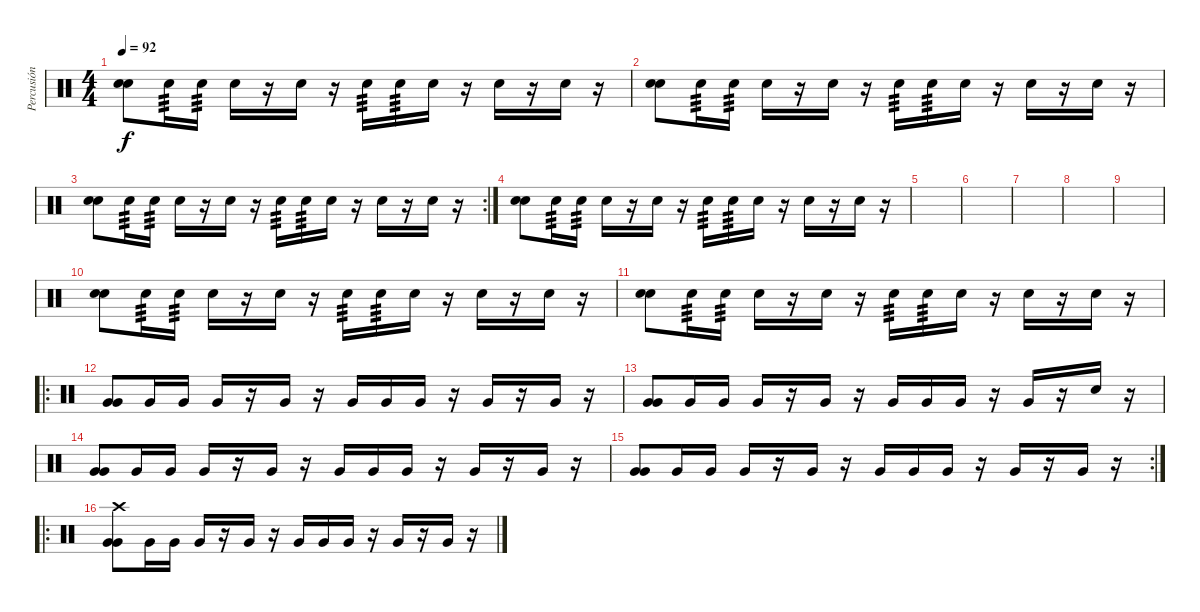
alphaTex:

\track ("Percusión" "Percusión") {instrument percussion}
\staff {score}
\articulation defaults
\ts (4 4)
\tempo 92
\clef neutral
\ks c
("Electric Snare (hit)" "Electric Snare (hit)").8{dy f volume 6} "Electric Snare (hit)".16{tp 3} "Electric Snare (hit)".16{tp 3} "Electric Snare (hit)".16 r.16 "Electric Snare (hit)".16 r.16 "Electric Snare (hit)".16{tp 3} "Electric Snare (hit)".16{tp 3} "Electric Snare (hit)".16 r.16 "Electric Snare (hit)".16 r.16 "Electric Snare (hit)".16 r.16 |
("Electric Snare (hit)" "Electric Snare (hit)").8{volume 6} "Electric Snare (hit)".16{tp 3} "Electric Snare (hit)".16{tp 3} "Electric Snare (hit)".16 r.16 "Electric Snare (hit)".16 r.16 "Electric Snare (hit)".16{tp 3} "Electric Snare (hit)".16{tp 3} "Electric Snare (hit)".16 r.16 "Electric Snare (hit)".16 r.16 "Electric Snare (hit)".16 r.16 |
\rc 2
("Electric Snare (hit)" "Electric Snare (hit)").8{volume 6} "Electric Snare (hit)".16{tp 3} "Electric Snare (hit)".16{tp 3} "Electric Snare (hit)".16 r.16 "Electric Snare (hit)".16 r.16 "Electric Snare (hit)".16{tp 3} "Electric Snare (hit)".16{tp 3} "Electric Snare (hit)".16 r.16 "Electric Snare (hit)".16 r.16 "Electric Snare (hit)".16 r.16 |
("Electric Snare (hit)" "Electric Snare (hit)").8{volume 0} "Electric Snare (hit)".16{tp 3} "Electric Snare (hit)".16{tp 3} "Electric Snare (hit)".16 r.16 "Electric Snare (hit)".16 r.16 "Electric Snare (hit)".16{tp 3} "Electric Snare (hit)".16{tp 3} "Electric Snare (hit)".16 r.16 "Electric Snare (hit)".16 r.16 "Electric Snare (hit)".16 r.16 |
|
|
|
|
|
("Electric Snare (hit)" "Electric Snare (hit)").8{volume 16} "Electric Snare (hit)".16{tp 3} "Electric Snare (hit)".16{tp 3} "Electric Snare (hit)".16 r.16 "Electric Snare (hit)".16 r.16 "Electric Snare (hit)".16{tp 3} "Electric Snare (hit)".16{tp 3} "Electric Snare (hit)".16 r.16 "Electric Snare (hit)".16 r.16 "Electric Snare (hit)".16 r.16 |
("Electric Snare (hit)" "Electric Snare (hit)").8 "Electric Snare (hit)".16{tp 3} "Electric Snare (hit)".16{tp 3} "Electric Snare (hit)".16 r.16 "Electric Snare (hit)".16 r.16 "Electric Snare (hit)".16{tp 3} "Electric Snare (hit)".16{tp 3} "Electric Snare (hit)".16 r.16 "Electric Snare (hit)".16 r.16 "Electric Snare (hit)".16 r.16 |
\ro
("Very Low Tom (hit)" "Very Low Tom (hit)").8 "Very Low Tom (hit)".16 "Very Low Tom (hit)".16 "Very Low Tom (hit)".16 r.16 "Very Low Tom (hit)".16 r.16 "Very Low Tom (hit)".16 "Very Low Tom (hit)".16 "Very Low Tom (hit)".16 r.16 "Very Low Tom (hit)".16 r.16 "Very Low Tom (hit)".16 r.16 |
("Very Low Tom (hit)" "Very Low Tom (hit)").8 "Very Low Tom (hit)".16 "Very Low Tom (hit)".16 "Very Low Tom (hit)".16 r.16 "Very Low Tom (hit)".16 r.16 "Very Low Tom (hit)".16 "Very Low Tom (hit)".16 "Very Low Tom (hit)".16 r.16 "Very Low Tom (hit)".16 r.16 "Electric Snare (hit)".16 r.16 |
("Very Low Tom (hit)" "Very Low Tom (hit)").8 "Very Low Tom (hit)".16 "Very Low Tom (hit)".16 "Very Low Tom (hit)".16 r.16 "Very Low Tom (hit)".16 r.16 "Very Low Tom (hit)".16 "Very Low Tom (hit)".16 "Very Low Tom (hit)".16 r.16 "Very Low Tom (hit)".16 r.16 "Very Low Tom (hit)".16 r.16 |
\rc 2
("Very Low Tom (hit)" "Very Low Tom (hit)").8 "Very Low Tom (hit)".16 "Very Low Tom (hit)".16 "Very Low Tom (hit)".16 r.16 "Very Low Tom (hit)".16 r.16 "Very Low Tom (hit)".16 "Very Low Tom (hit)".16 "Very Low Tom (hit)".16 r.16 "Very Low Tom (hit)".16 r.16 "Very Low Tom (hit)".16 r.16 |
\ro
("Crash high (hit)" "Very Low Tom (hit)" "Very Low Tom (hit)").8 "Very Low Tom (hit)".16 "Very Low Tom (hit)".16 "Very Low Tom (hit)".16 r.16 "Very Low Tom (hit)".16 r.16 "Very Low Tom (hit)".16 "Very Low Tom (hit)".16 "Very Low Tom (hit)".16 r.16 "Very Low Tom (hit)".16 r.16 "Very Low Tom (hit)".16 r.16
